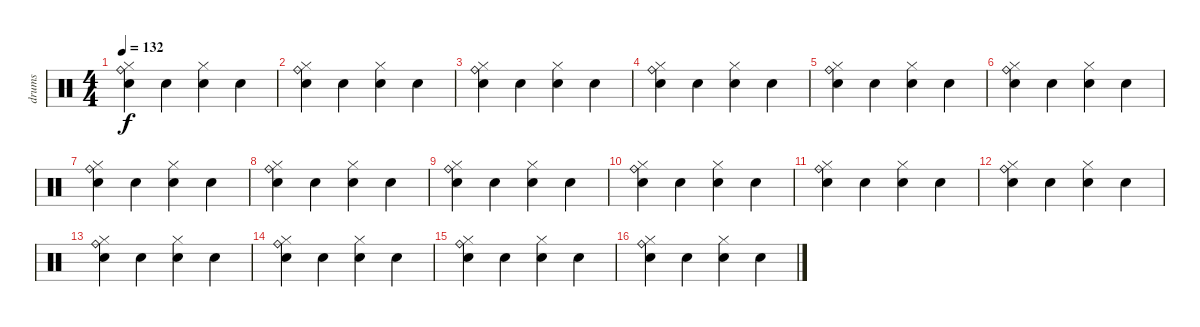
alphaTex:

\track ("drums" "drums") {instrument percussion}
\staff {score}
\articulation defaults
\ts (4 4)
\tempo 132
\clef neutral
\ks c
("Electric Snare (hit)" "Ride (bell)" "Hi-Hat (closed)").4{dy f} "Electric Snare (hit)".4 ("Electric Snare (hit)" "Hi-Hat (closed)").4 "Electric Snare (hit)".4 |
("Electric Snare (hit)" "Ride (bell)" "Hi-Hat (closed)").4 "Electric Snare (hit)".4 ("Electric Snare (hit)" "Hi-Hat (closed)").4 "Electric Snare (hit)".4 |
("Electric Snare (hit)" "Ride (bell)" "Hi-Hat (closed)").4 "Electric Snare (hit)".4 ("Electric Snare (hit)" "Hi-Hat (closed)").4 "Electric Snare (hit)".4 |
("Electric Snare (hit)" "Ride (bell)" "Hi-Hat (closed)").4 "Electric Snare (hit)".4 ("Electric Snare (hit)" "Hi-Hat (closed)").4 "Electric Snare (hit)".4 |
("Electric Snare (hit)" "Ride (bell)" "Hi-Hat (closed)").4 "Electric Snare (hit)".4 ("Electric Snare (hit)" "Hi-Hat (closed)").4 "Electric Snare (hit)".4 |
("Electric Snare (hit)" "Ride (bell)" "Hi-Hat (closed)").4 "Electric Snare (hit)".4 ("Electric Snare (hit)" "Hi-Hat (closed)").4 "Electric Snare (hit)".4 |
("Electric Snare (hit)" "Ride (bell)" "Hi-Hat (closed)").4 "Electric Snare (hit)".4 ("Electric Snare (hit)" "Hi-Hat (closed)").4 "Electric Snare (hit)".4 |
("Electric Snare (hit)" "Ride (bell)" "Hi-Hat (closed)").4 "Electric Snare (hit)".4 ("Electric Snare (hit)" "Hi-Hat (closed)").4 "Electric Snare (hit)".4 |
("Electric Snare (hit)" "Ride (bell)" "Hi-Hat (closed)").4 "Electric Snare (hit)".4 ("Electric Snare (hit)" "Hi-Hat (closed)").4 "Electric Snare (hit)".4 |
("Electric Snare (hit)" "Ride (bell)" "Hi-Hat (closed)").4 "Electric Snare (hit)".4 ("Electric Snare (hit)" "Hi-Hat (closed)").4 "Electric Snare (hit)".4 |
("Electric Snare (hit)" "Ride (bell)" "Hi-Hat (closed)").4 "Electric Snare (hit)".4 ("Electric Snare (hit)" "Hi-Hat (closed)").4 "Electric Snare (hit)".4 |
("Electric Snare (hit)" "Ride (bell)" "Hi-Hat (closed)").4 "Electric Snare (hit)".4 ("Electric Snare (hit)" "Hi-Hat (closed)").4 "Electric Snare (hit)".4 |
("Electric Snare (hit)" "Ride (bell)" "Hi-Hat (closed)").4 "Electric Snare (hit)".4 ("Electric Snare (hit)" "Hi-Hat (closed)").4 "Electric Snare (hit)".4 |
("Electric Snare (hit)" "Ride (bell)" "Hi-Hat (closed)").4 "Electric Snare (hit)".4 ("Electric Snare (hit)" "Hi-Hat (closed)").4 "Electric Snare (hit)".4 |
("Electric Snare (hit)" "Ride (bell)" "Hi-Hat (closed)").4 "Electric Snare (hit)".4 ("Electric Snare (hit)" "Hi-Hat (closed)").4 "Electric Snare (hit)".4 |
("Electric Snare (hit)" "Ride (bell)" "Hi-Hat (closed)").4 "Electric Snare (hit)".4 ("Electric Snare (hit)" "Hi-Hat (closed)").4 "Electric Snare (hit)".4
